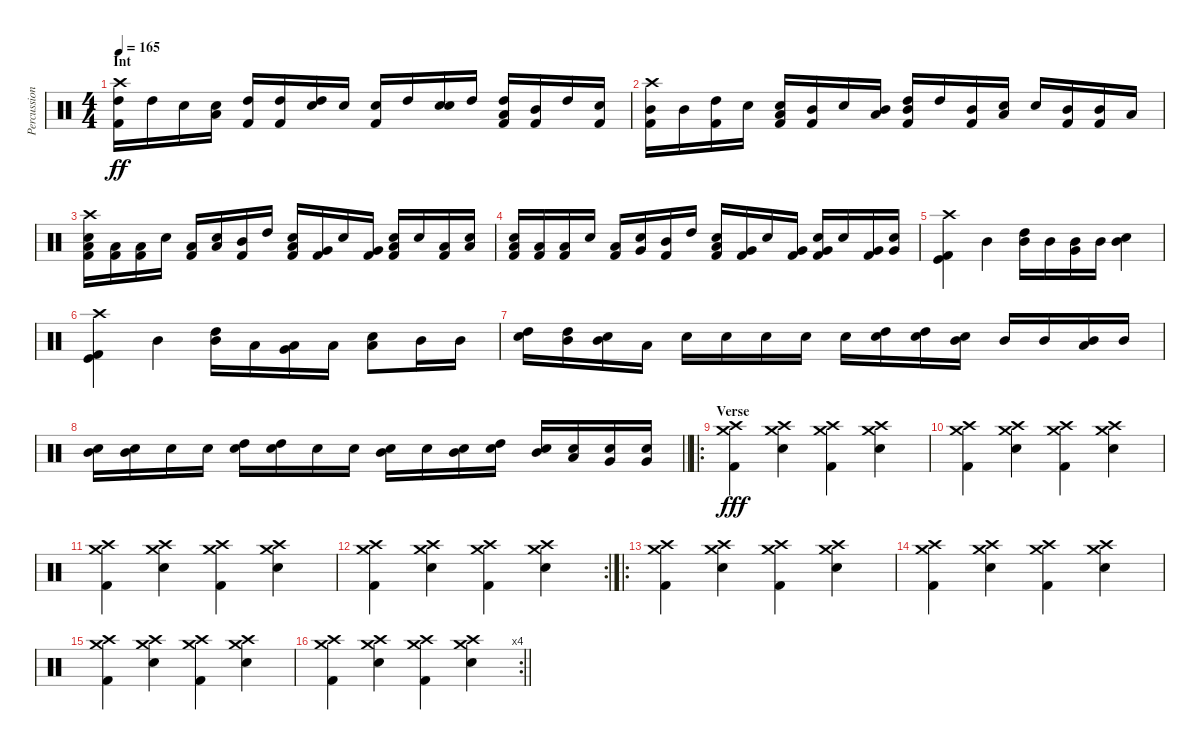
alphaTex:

\track ("Percussion" "Percussion") {instrument percussion}
\staff {score}
\articulation defaults
\ts (4 4)
\section ("" "Int ")
\tempo 165
\clef neutral
\ks c
("Crash high (hit)" "High Tom (hit)" "Kick (hit) 2").16{dy ff} "High Tom (hit)".16 "Snare (hit) 2".16 ("Snare (hit) 2" "Low Tom (hit)").16 ("High Tom (hit)" "Kick (hit) 2").16 ("High Tom (hit)" "Kick (hit) 2").16 ("High Tom (hit)" "Snare (hit) 2").16 "Snare (hit) 2".16 ("Snare (hit) 2" "Kick (hit) 2").16 "High Tom (hit)".16 ("Snare (hit) 2" "Snare (hit) 2").16 "High Tom (hit)".16 ("High Tom (hit)" "Low Tom (hit)" "Kick (hit) 2").16 ("Mid Tom (hit)" "Kick (hit) 2").16 "High Tom (hit)".16 ("Snare (hit) 2" "Kick (hit) 2").16 |
("Crash high (hit)" "Mid Tom (hit)" "Kick (hit) 2").16 "Mid Tom (hit)".16 ("High Tom (hit)" "Kick (hit) 2").16 "Snare (hit) 2".16 ("Snare (hit) 2" "Low Tom (hit)" "Kick (hit) 2").16 ("Mid Tom (hit)" "Kick (hit) 2").16 "Snare (hit) 2".16 ("Mid Tom (hit)" "Low Tom (hit)").16 ("Mid Tom (hit)" "High Tom (hit)" "Kick (hit) 2").16 "High Tom (hit)".16 ("Mid Tom (hit)" "Kick (hit) 2").16 ("Low Tom (hit)" "Snare (hit) 2").16 "Snare (hit) 2".16 ("Mid Tom (hit)" "Kick (hit) 2").16 ("Mid Tom (hit)" "Kick (hit) 2").16 "Low Tom (hit)".16 |
("Crash high (hit)" "Low Tom (hit)" "Snare (hit) 2" "Kick (hit) 2").16 ("Low Tom (hit)" "Kick (hit) 2").16 ("Low Tom (hit)" "Kick (hit) 2").16 "Snare (hit) 2".16 ("Low Tom (hit)" "Kick (hit) 2").16 ("Low Tom (hit)" "Snare (hit) 2").16 ("Mid Tom (hit)" "Kick (hit) 2").16 "High Tom (hit)".16 ("Low Tom (hit)" "Snare (hit) 2" "Kick (hit) 2").16 ("Very Low Tom (hit)" "Kick (hit) 2").16 "Snare (hit) 2".16 ("Very Low Tom (hit)" "Kick (hit) 2").16 ("Low Tom (hit)" "Snare (hit) 2" "Kick (hit) 2").16 "Snare (hit) 2".16 ("Low Tom (hit)" "Kick (hit) 2").16 ("Low Tom (hit)" "Snare (hit) 2").16 |
("Low Tom (hit)" "Snare (hit) 2" "Kick (hit) 2").16 ("Low Tom (hit)" "Kick (hit) 2").16 ("Low Tom (hit)" "Kick (hit) 2").16 "Snare (hit) 2".16 ("Low Tom (hit)" "Kick (hit) 2").16 ("Very Low Tom (hit)" "Snare (hit) 2").16 ("Mid Tom (hit)" "Kick (hit) 2").16 "High Tom (hit)".16 ("Low Tom (hit)" "Snare (hit) 2" "Kick (hit) 2").16 ("Very Low Tom (hit)" "Kick (hit) 2").16 "Snare (hit) 2".16 ("Very Low Tom (hit)" "Kick (hit) 2").16 ("Very Low Tom (hit)" "Snare (hit) 2" "Kick (hit) 2").16 "Snare (hit) 2".16 ("Very Low Tom (hit)" "Kick (hit) 2").16 ("Very Low Tom (hit)" "Snare (hit) 2").16 |
("Crash high (hit)" "Kick (hit)" "Kick (hit) 2").4 "Mid Tom (hit)".4 ("High Tom (hit)" "Mid Tom (hit)").16 "Mid Tom (hit)".16 ("Very Low Tom (hit)" "Mid Tom (hit)").16 "Mid Tom (hit)".16 ("Snare (hit) 2" "Mid Tom (hit)").4 |
("Crash high (hit)" "Kick (hit)" "Kick (hit) 2").4 "Mid Tom (hit)".4 ("High Tom (hit)" "Mid Tom (hit)").16 "Low Tom (hit)".16 ("Very Low Tom (hit)" "Low Tom (hit)").16 "Low Tom (hit)".16 ("Snare (hit) 2" "Low Tom (hit)").8 "Mid Tom (hit)".16 "Mid Tom (hit)".16 |
("High Tom (hit)" "Snare (hit) 2").16 ("High Tom (hit)" "Mid Tom (hit)").16 ("Mid Tom (hit)" "Snare (hit) 2").16 "Low Tom (hit)".16 "Snare (hit) 2".16 "Snare (hit) 2".16 "Electric Snare (hit)".16 "Electric Snare (hit)".16 "Snare (hit) 2".16 ("High Tom (hit)" "Electric Snare (hit)").16 ("High Tom (hit)" "Snare (hit) 2").16 ("Mid Tom (hit)" "Snare (hit) 2").16 "Mid Tom (hit)".16 "Mid Tom (hit)".16 ("Mid Tom (hit)" "Low Tom (hit)").16 "Mid Tom (hit)".16 |
\barLineRight lightlight
("Mid Tom (hit)" "Snare (hit) 2").16 ("Mid Tom (hit)" "Snare (hit) 2").16 "Snare (hit) 2".16 "Electric Snare (hit)".16 ("High Tom (hit)" "Electric Snare (hit)").16 ("High Tom (hit)" "Snare (hit) 2").16 "Electric Snare (hit)".16 "Snare (hit) 2".16 ("Mid Tom (hit)" "Snare (hit) 2").16 "Electric Snare (hit)".16 ("Mid Tom (hit)" "Snare (hit) 2").16 ("High Tom (hit)" "Snare (hit) 2").16 ("Mid Tom (hit)" "Electric Snare (hit)").16 ("Low Tom (hit)" "Snare (hit) 2").16 ("Very Low Tom (hit)" "Snare (hit) 2").16 ("Very Low Tom (hit)" "Snare (hit) 2").16 |
\ro
\section ("" "Verse")
("Crash high (hit)" "Crash medium (hit)" "Kick (hit) 2").4{dy fff} ("Crash high (hit)" "Crash medium (hit)" "Snare (hit) 2").4 ("Crash high (hit)" "Crash medium (hit)" "Kick (hit) 2").4 ("Crash high (hit)" "Crash medium (hit)" "Snare (hit) 2").4 |
("Crash high (hit)" "Crash medium (hit)" "Kick (hit) 2").4 ("Crash high (hit)" "Crash medium (hit)" "Snare (hit) 2").4 ("Crash high (hit)" "Crash medium (hit)" "Kick (hit) 2").4 ("Crash high (hit)" "Crash medium (hit)" "Snare (hit) 2").4 |
("Crash high (hit)" "Crash medium (hit)" "Kick (hit) 2").4 ("Crash high (hit)" "Crash medium (hit)" "Snare (hit) 2").4 ("Crash high (hit)" "Crash medium (hit)" "Kick (hit) 2").4 ("Crash high (hit)" "Crash medium (hit)" "Snare (hit) 2").4 |
\rc 2
("Crash high (hit)" "Crash medium (hit)" "Kick (hit) 2").4 ("Crash high (hit)" "Crash medium (hit)" "Snare (hit) 2").4 ("Crash high (hit)" "Crash medium (hit)" "Kick (hit) 2").4 ("Crash high (hit)" "Crash medium (hit)" "Snare (hit) 2").4 |
\ro
("Crash high (hit)" "Crash medium (hit)" "Kick (hit) 2").4 ("Crash high (hit)" "Crash medium (hit)" "Snare (hit) 2").4 ("Crash high (hit)" "Crash medium (hit)" "Kick (hit) 2").4 ("Crash high (hit)" "Crash medium (hit)" "Snare (hit) 2").4 |
("Crash high (hit)" "Crash medium (hit)" "Kick (hit) 2").4 ("Crash high (hit)" "Crash medium (hit)" "Snare (hit) 2").4 ("Crash high (hit)" "Crash medium (hit)" "Kick (hit) 2").4 ("Crash high (hit)" "Crash medium (hit)" "Snare (hit) 2").4 |
("Crash high (hit)" "Crash medium (hit)" "Kick (hit) 2").4 ("Crash high (hit)" "Crash medium (hit)" "Snare (hit) 2").4 ("Crash high (hit)" "Crash medium (hit)" "Kick (hit) 2").4 ("Crash high (hit)" "Crash medium (hit)" "Snare (hit) 2").4 |
\rc 4
\barLineRight lightlight
("Crash high (hit)" "Crash medium (hit)" "Kick (hit) 2").4 ("Crash high (hit)" "Crash medium (hit)" "Snare (hit) 2").4 ("Crash high (hit)" "Crash medium (hit)" "Kick (hit) 2").4 ("Crash high (hit)" "Crash medium (hit)" "Snare (hit) 2").4
